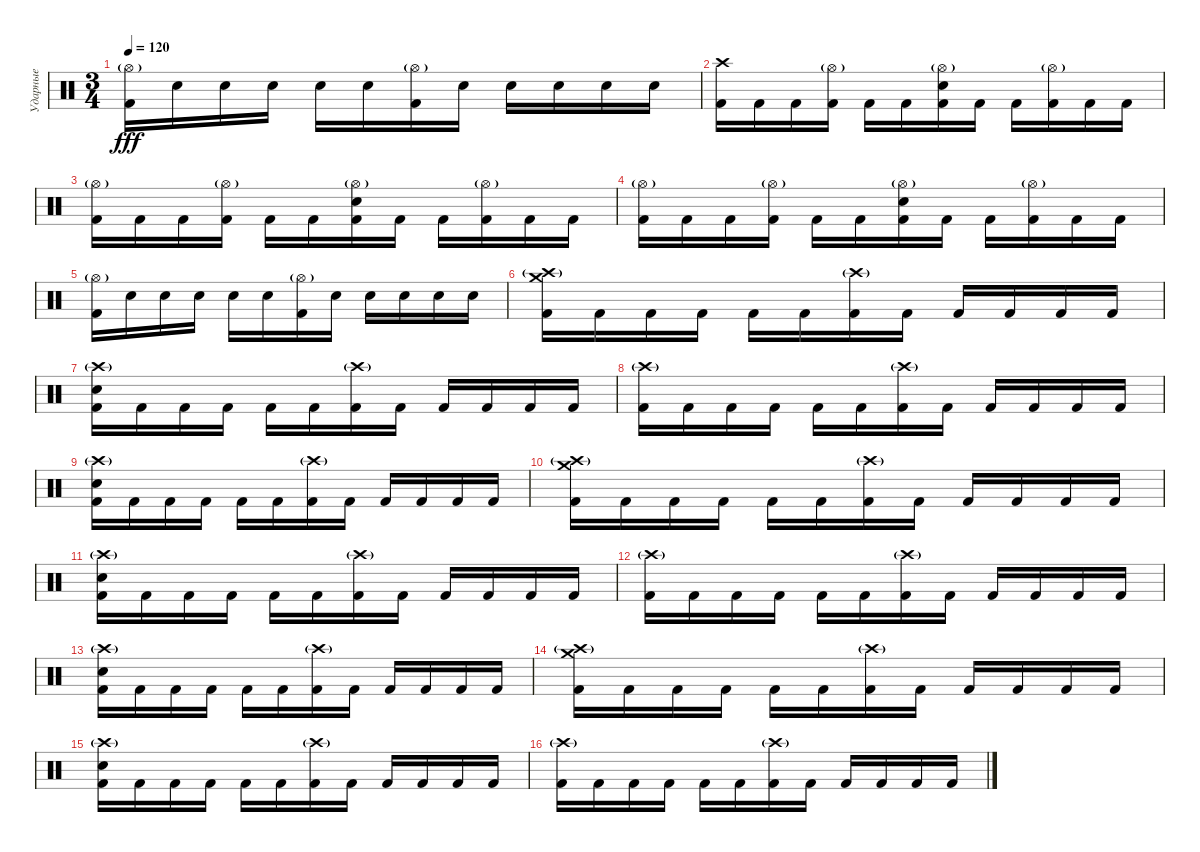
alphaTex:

\track ("Ударные" "Ударные") {instrument percussion}
\staff {score}
\articulation defaults
\ts (3 4)
\tempo 120
\clef neutral
\ks c
("Hi-Hat (open)"{g} "Kick (hit) 2").16{dy fff} "Electric Snare (hit)".16 "Electric Snare (hit)".16 "Electric Snare (hit)".16 "Electric Snare (hit)".16 "Electric Snare (hit)".16 ("Hi-Hat (open)"{g} "Kick (hit) 2").16 "Electric Snare (hit)".16 "Electric Snare (hit)".16 "Electric Snare (hit)".16 "Electric Snare (hit)".16 "Electric Snare (hit)".16 |
("Crash high (hit)" "Kick (hit) 2").16 "Kick (hit) 2".16 "Kick (hit) 2".16 ("Hi-Hat (open)"{g} "Kick (hit) 2").16 "Kick (hit) 2".16 "Kick (hit) 2".16 ("Hi-Hat (open)"{g} "Electric Snare (hit)" "Kick (hit) 2").16 "Kick (hit) 2".16 "Kick (hit) 2".16 ("Hi-Hat (open)"{g} "Kick (hit) 2").16 "Kick (hit) 2".16 "Kick (hit) 2".16 |
("Hi-Hat (open)"{g} "Kick (hit) 2").16 "Kick (hit) 2".16 "Kick (hit) 2".16 ("Hi-Hat (open)"{g} "Kick (hit) 2").16 "Kick (hit) 2".16 "Kick (hit) 2".16 ("Hi-Hat (open)"{g} "Electric Snare (hit)" "Kick (hit) 2").16 "Kick (hit) 2".16 "Kick (hit) 2".16 ("Hi-Hat (open)"{g} "Kick (hit) 2").16 "Kick (hit) 2".16 "Kick (hit) 2".16 |
("Hi-Hat (open)"{g} "Kick (hit) 2").16 "Kick (hit) 2".16 "Kick (hit) 2".16 ("Hi-Hat (open)"{g} "Kick (hit) 2").16 "Kick (hit) 2".16 "Kick (hit) 2".16 ("Hi-Hat (open)"{g} "Electric Snare (hit)" "Kick (hit) 2").16 "Kick (hit) 2".16 "Kick (hit) 2".16 ("Hi-Hat (open)"{g} "Kick (hit) 2").16 "Kick (hit) 2".16 "Kick (hit) 2".16 |
("Hi-Hat (open)"{g} "Kick (hit) 2").16 "Electric Snare (hit)".16 "Electric Snare (hit)".16 "Electric Snare (hit)".16 "Electric Snare (hit)".16 "Electric Snare (hit)".16 ("Hi-Hat (open)"{g} "Kick (hit) 2").16 "Electric Snare (hit)".16 "Electric Snare (hit)".16 "Electric Snare (hit)".16 "Electric Snare (hit)".16 "Electric Snare (hit)".16 |
("Crash high (hit)"{g} "Crash medium (hit)" "Kick (hit) 2").16 "Kick (hit) 2".16 "Kick (hit) 2".16 "Kick (hit) 2".16 "Kick (hit) 2".16 "Kick (hit) 2".16 ("Crash high (hit)"{g} "Kick (hit) 2").16 "Kick (hit) 2".16 "Kick (hit) 2".16 "Kick (hit) 2".16 "Kick (hit) 2".16 "Kick (hit) 2".16 |
("Crash high (hit)"{g} "Electric Snare (hit)" "Kick (hit) 2").16 "Kick (hit) 2".16 "Kick (hit) 2".16 "Kick (hit) 2".16 "Kick (hit) 2".16 "Kick (hit) 2".16 ("Crash high (hit)"{g} "Kick (hit) 2").16 "Kick (hit) 2".16 "Kick (hit) 2".16 "Kick (hit) 2".16 "Kick (hit) 2".16 "Kick (hit) 2".16 |
("Crash high (hit)"{g} "Kick (hit) 2").16 "Kick (hit) 2".16 "Kick (hit) 2".16 "Kick (hit) 2".16 "Kick (hit) 2".16 "Kick (hit) 2".16 ("Crash high (hit)"{g} "Kick (hit) 2").16 "Kick (hit) 2".16 "Kick (hit) 2".16 "Kick (hit) 2".16 "Kick (hit) 2".16 "Kick (hit) 2".16 |
("Crash high (hit)"{g} "Electric Snare (hit)" "Kick (hit) 2").16 "Kick (hit) 2".16 "Kick (hit) 2".16 "Kick (hit) 2".16 "Kick (hit) 2".16 "Kick (hit) 2".16 ("Crash high (hit)"{g} "Kick (hit) 2").16 "Kick (hit) 2".16 "Kick (hit) 2".16 "Kick (hit) 2".16 "Kick (hit) 2".16 "Kick (hit) 2".16 |
("Crash high (hit)"{g} "Crash medium (hit)" "Kick (hit) 2").16 "Kick (hit) 2".16 "Kick (hit) 2".16 "Kick (hit) 2".16 "Kick (hit) 2".16 "Kick (hit) 2".16 ("Crash high (hit)"{g} "Kick (hit) 2").16 "Kick (hit) 2".16 "Kick (hit) 2".16 "Kick (hit) 2".16 "Kick (hit) 2".16 "Kick (hit) 2".16 |
("Crash high (hit)"{g} "Electric Snare (hit)" "Kick (hit) 2").16 "Kick (hit) 2".16 "Kick (hit) 2".16 "Kick (hit) 2".16 "Kick (hit) 2".16 "Kick (hit) 2".16 ("Crash high (hit)"{g} "Kick (hit) 2").16 "Kick (hit) 2".16 "Kick (hit) 2".16 "Kick (hit) 2".16 "Kick (hit) 2".16 "Kick (hit) 2".16 |
("Crash high (hit)"{g} "Kick (hit) 2").16 "Kick (hit) 2".16 "Kick (hit) 2".16 "Kick (hit) 2".16 "Kick (hit) 2".16 "Kick (hit) 2".16 ("Crash high (hit)"{g} "Kick (hit) 2").16 "Kick (hit) 2".16 "Kick (hit) 2".16 "Kick (hit) 2".16 "Kick (hit) 2".16 "Kick (hit) 2".16 |
("Crash high (hit)"{g} "Electric Snare (hit)" "Kick (hit) 2").16 "Kick (hit) 2".16 "Kick (hit) 2".16 "Kick (hit) 2".16 "Kick (hit) 2".16 "Kick (hit) 2".16 ("Crash high (hit)"{g} "Kick (hit) 2").16 "Kick (hit) 2".16 "Kick (hit) 2".16 "Kick (hit) 2".16 "Kick (hit) 2".16 "Kick (hit) 2".16 |
("Crash high (hit)"{g} "Crash medium (hit)" "Kick (hit) 2").16 "Kick (hit) 2".16 "Kick (hit) 2".16 "Kick (hit) 2".16 "Kick (hit) 2".16 "Kick (hit) 2".16 ("Crash high (hit)"{g} "Kick (hit) 2").16 "Kick (hit) 2".16 "Kick (hit) 2".16 "Kick (hit) 2".16 "Kick (hit) 2".16 "Kick (hit) 2".16 |
("Crash high (hit)"{g} "Electric Snare (hit)" "Kick (hit) 2").16 "Kick (hit) 2".16 "Kick (hit) 2".16 "Kick (hit) 2".16 "Kick (hit) 2".16 "Kick (hit) 2".16 ("Crash high (hit)"{g} "Kick (hit) 2").16 "Kick (hit) 2".16 "Kick (hit) 2".16 "Kick (hit) 2".16 "Kick (hit) 2".16 "Kick (hit) 2".16 |
("Crash high (hit)"{g} "Kick (hit) 2").16 "Kick (hit) 2".16 "Kick (hit) 2".16 "Kick (hit) 2".16 "Kick (hit) 2".16 "Kick (hit) 2".16 ("Crash high (hit)"{g} "Kick (hit) 2").16 "Kick (hit) 2".16 "Kick (hit) 2".16 "Kick (hit) 2".16 "Kick (hit) 2".16 "Kick (hit) 2".16
